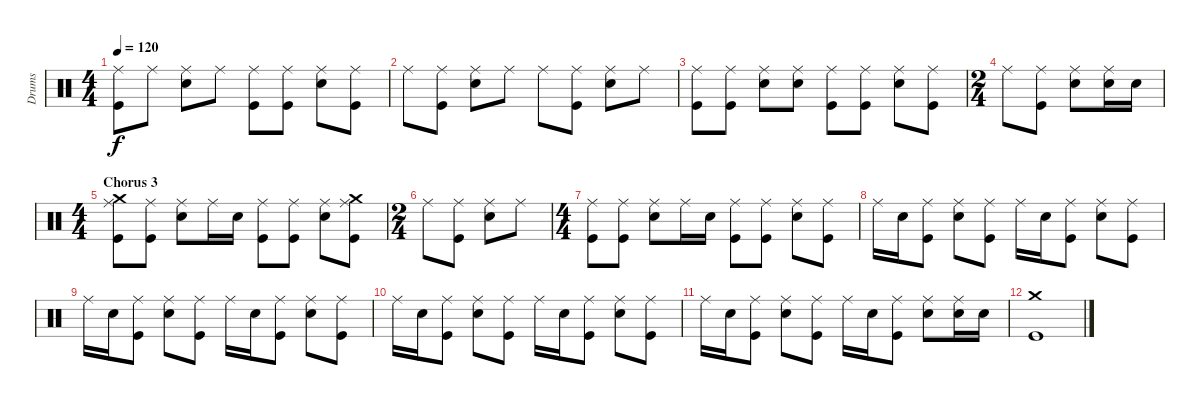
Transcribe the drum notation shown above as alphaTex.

\track ("Drums" "Drums") {instrument percussion}
\staff {score}
\articulation defaults
\ts (4 4)
\tempo 120
\clef neutral
\ks c
("Ride (middle)" "Kick (hit)").8{dy f} "Ride (middle)".8 ("Ride (middle)" "Snare (hit) 2").8 "Ride (middle)".8 ("Ride (middle)" "Kick (hit)").8 ("Ride (middle)" "Kick (hit)").8 ("Ride (middle)" "Snare (hit) 2").8 ("Ride (middle)" "Kick (hit)").8 |
"Ride (middle)".8 ("Ride (middle)" "Kick (hit)").8 ("Ride (middle)" "Snare (hit) 2").8 "Ride (middle)".8 "Ride (middle)".8 ("Ride (middle)" "Kick (hit)").8 ("Ride (middle)" "Snare (hit) 2").8 "Ride (middle)".8 |
("Ride (middle)" "Kick (hit)").8 ("Ride (middle)" "Kick (hit)").8 ("Ride (middle)" "Snare (hit) 2").8 ("Ride (middle)" "Snare (hit) 2").8 ("Ride (middle)" "Kick (hit)").8 ("Ride (middle)" "Kick (hit)").8 ("Ride (middle)" "Snare (hit) 2").8 ("Ride (middle)" "Kick (hit)").8 |
\ts (2 4)
"Ride (middle)".8 ("Ride (middle)" "Kick (hit)").8 ("Ride (middle)" "Snare (hit) 2").8 ("Ride (middle)" "Snare (hit) 2").16 "Snare (hit) 2".16 |
\ts (4 4)
\section ("" "Chorus 3")
("Ride (middle)" "Crash medium (hit)" "Kick (hit)").8 ("Ride (middle)" "Kick (hit)").8 ("Ride (middle)" "Snare (hit) 2").8 "Ride (middle)".16 "Snare (hit) 2".16 ("Ride (middle)" "Kick (hit)").8 ("Ride (middle)" "Kick (hit)").8 ("Ride (middle)" "Snare (hit) 2").8 ("Ride (middle)" "Crash medium (hit)" "Kick (hit)").8 |
\ts (2 4)
"Ride (middle)".8 ("Ride (middle)" "Kick (hit)").8 ("Ride (middle)" "Snare (hit) 2").8 "Ride (middle)".8 |
\ts (4 4)
("Ride (middle)" "Kick (hit)").8 ("Ride (middle)" "Kick (hit)").8 ("Ride (middle)" "Snare (hit) 2").8 "Ride (middle)".16 "Snare (hit) 2".16 ("Ride (middle)" "Kick (hit)").8 ("Ride (middle)" "Kick (hit)").8 ("Ride (middle)" "Snare (hit) 2").8 ("Ride (middle)" "Kick (hit)").8 |
"Ride (middle)".16 "Snare (hit) 2".16 ("Ride (middle)" "Kick (hit)").8 ("Ride (middle)" "Snare (hit) 2").8 ("Ride (middle)" "Kick (hit)").8 "Ride (middle)".16 "Snare (hit) 2".16 ("Ride (middle)" "Kick (hit)").8 ("Ride (middle)" "Snare (hit) 2").8 ("Ride (middle)" "Kick (hit)").8 |
"Ride (middle)".16 "Snare (hit) 2".16 ("Ride (middle)" "Kick (hit)").8 ("Ride (middle)" "Snare (hit) 2").8 ("Ride (middle)" "Kick (hit)").8 "Ride (middle)".16 "Snare (hit) 2".16 ("Ride (middle)" "Kick (hit)").8 ("Ride (middle)" "Snare (hit) 2").8 ("Ride (middle)" "Kick (hit)").8 |
"Ride (middle)".16 "Snare (hit) 2".16 ("Ride (middle)" "Kick (hit)").8 ("Ride (middle)" "Snare (hit) 2").8 ("Ride (middle)" "Kick (hit)").8 "Ride (middle)".16 "Snare (hit) 2".16 ("Ride (middle)" "Kick (hit)").8 ("Ride (middle)" "Snare (hit) 2").8 ("Ride (middle)" "Kick (hit)").8 |
"Ride (middle)".16 "Snare (hit) 2".16 ("Ride (middle)" "Kick (hit)").8 ("Ride (middle)" "Snare (hit) 2").8 ("Ride (middle)" "Kick (hit)").8 "Ride (middle)".16 "Snare (hit) 2".16 ("Ride (middle)" "Kick (hit)").8 ("Ride (middle)" "Snare (hit) 2").8 ("Ride (middle)" "Snare (hit) 2").16 "Snare (hit) 2".16 |
("Crash medium (hit)" "Kick (hit)").1
